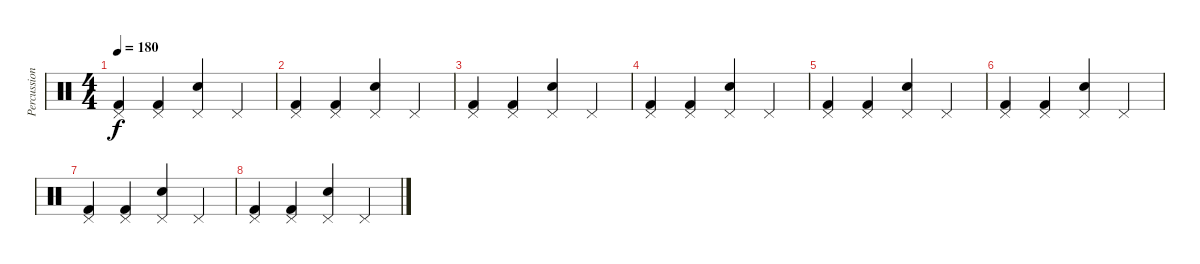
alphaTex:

\track ("Percussion" "Percussion") {instrument percussion}
\staff {score}
\articulation defaults
\ts (4 4)
\tempo 180
\clef neutral
\ks c
("Kick (hit) 2" "Pedal Hi-Hat (hit)").4{dy f} ("Kick (hit) 2" "Pedal Hi-Hat (hit)").4 ("Electric Snare (hit)" "Pedal Hi-Hat (hit)").4 "Pedal Hi-Hat (hit)".4 |
("Kick (hit) 2" "Pedal Hi-Hat (hit)").4 ("Kick (hit) 2" "Pedal Hi-Hat (hit)").4 ("Electric Snare (hit)" "Pedal Hi-Hat (hit)").4 "Pedal Hi-Hat (hit)".4 |
("Kick (hit) 2" "Pedal Hi-Hat (hit)").4 ("Kick (hit) 2" "Pedal Hi-Hat (hit)").4 ("Electric Snare (hit)" "Pedal Hi-Hat (hit)").4 "Pedal Hi-Hat (hit)".4 |
("Kick (hit) 2" "Pedal Hi-Hat (hit)").4 ("Kick (hit) 2" "Pedal Hi-Hat (hit)").4 ("Electric Snare (hit)" "Pedal Hi-Hat (hit)").4 "Pedal Hi-Hat (hit)".4 |
("Kick (hit) 2" "Pedal Hi-Hat (hit)").4 ("Kick (hit) 2" "Pedal Hi-Hat (hit)").4 ("Electric Snare (hit)" "Pedal Hi-Hat (hit)").4 "Pedal Hi-Hat (hit)".4 |
("Kick (hit) 2" "Pedal Hi-Hat (hit)").4 ("Kick (hit) 2" "Pedal Hi-Hat (hit)").4 ("Electric Snare (hit)" "Pedal Hi-Hat (hit)").4 "Pedal Hi-Hat (hit)".4 |
("Kick (hit) 2" "Pedal Hi-Hat (hit)").4 ("Kick (hit) 2" "Pedal Hi-Hat (hit)").4 ("Electric Snare (hit)" "Pedal Hi-Hat (hit)").4 "Pedal Hi-Hat (hit)".4 |
("Kick (hit) 2" "Pedal Hi-Hat (hit)").4 ("Kick (hit) 2" "Pedal Hi-Hat (hit)").4 ("Electric Snare (hit)" "Pedal Hi-Hat (hit)").4 "Pedal Hi-Hat (hit)".4
